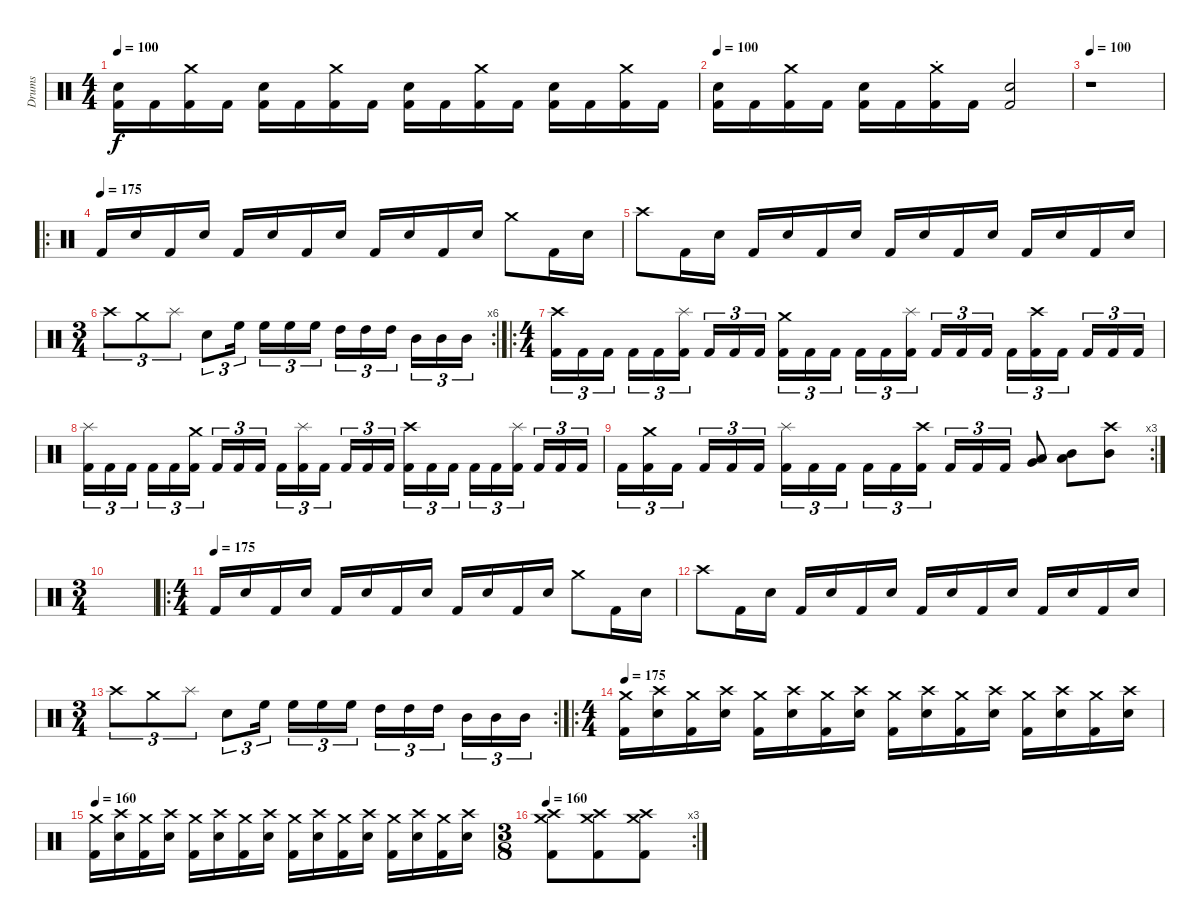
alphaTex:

\track ("Drums" "Drums") {instrument percussion}
\staff {score}
\articulation defaults
\ts (4 4)
\tempo 100
\clef neutral
\ks c
("Snare (hit) 2" "Kick (hit) 2").16{dy f} "Kick (hit) 2".16 ("Crash medium (hit)" "Kick (hit) 2").16 "Kick (hit) 2".16 ("Snare (hit) 2" "Kick (hit) 2").16 "Kick (hit) 2".16 ("Crash medium (hit)" "Kick (hit) 2").16 "Kick (hit) 2".16 ("Snare (hit) 2" "Kick (hit) 2").16 "Kick (hit) 2".16 ("Crash medium (hit)" "Kick (hit) 2").16 "Kick (hit) 2".16 ("Snare (hit) 2" "Kick (hit) 2").16 "Kick (hit) 2".16 ("Crash medium (hit)" "Kick (hit) 2").16 "Kick (hit) 2".16 |
\tempo 100
("Snare (hit) 2" "Kick (hit) 2").16 "Kick (hit) 2".16 ("Crash medium (hit)" "Kick (hit) 2").16 "Kick (hit) 2".16 ("Snare (hit) 2" "Kick (hit) 2").16 "Kick (hit) 2".16 ("Crash medium (hit)"{st} "Kick (hit) 2").16 "Kick (hit) 2".16 ("Snare (hit) 2" "Kick (hit) 2").2 |
\tempo 100
r.1 |
\ro
\tempo (175)
"Kick (hit) 2".16 "Snare (hit) 2".16 "Kick (hit) 2".16 "Snare (hit) 2".16 "Kick (hit) 2".16 "Snare (hit) 2".16 "Kick (hit) 2".16 "Snare (hit) 2".16 "Kick (hit) 2".16 "Snare (hit) 2".16 "Kick (hit) 2".16 "Snare (hit) 2".16 "Crash medium (hit)".8 "Kick (hit) 2".16 "Snare (hit) 2".16 |
"Crash high (hit)".8 "Kick (hit) 2".16 "Snare (hit) 2".16 "Kick (hit) 2".16 "Snare (hit) 2".16 "Kick (hit) 2".16 "Snare (hit) 2".16 "Kick (hit) 2".16 "Snare (hit) 2".16 "Kick (hit) 2".16 "Snare (hit) 2".16 "Kick (hit) 2".16 "Snare (hit) 2".16 "Kick (hit) 2".16 "Snare (hit) 2".16 |
\rc 6
\ts (3 4)
"Crash high (hit)".8{tu (3 2)} "Crash medium (hit)".8{tu (3 2)} "Splash (hit)".8{tu (3 2)} "Snare (hit) 2".8{tu (3 2)} "High Floor Tom (hit)".16{tu (3 2)} "High Floor Tom (hit)".16{tu (3 2)} "High Floor Tom (hit)".16{tu (3 2)} "High Floor Tom (hit)".16{tu (3 2)} "High Tom (hit)".16{tu (3 2)} "High Tom (hit)".16{tu (3 2)} "High Tom (hit)".16{tu (3 2)} "Mid Tom (hit)".16{tu (3 2)} "Mid Tom (hit)".16{tu (3 2)} "Mid Tom (hit)".16{tu (3 2)} |
\ro
\ts (4 4)
("Crash high (hit)" "Kick (hit) 2").16{tu (3 2)} "Kick (hit) 2".16{tu (3 2)} "Kick (hit) 2".16{tu (3 2)} "Kick (hit) 2".16{tu (3 2)} "Kick (hit) 2".16{tu (3 2)} ("Splash (hit)" "Kick (hit) 2").16{tu (3 2)} "Kick (hit) 2".16{tu (3 2)} "Kick (hit) 2".16{tu (3 2)} "Kick (hit) 2".16{tu (3 2)} ("Crash medium (hit)" "Kick (hit) 2").16{tu (3 2)} "Kick (hit) 2".16{tu (3 2)} "Kick (hit) 2".16{tu (3 2)} "Kick (hit) 2".16{tu (3 2)} "Kick (hit) 2".16{tu (3 2)} ("Splash (hit)" "Kick (hit) 2").16{tu (3 2)} "Kick (hit) 2".16{tu (3 2)} "Kick (hit) 2".16{tu (3 2)} "Kick (hit) 2".16{tu (3 2)} "Kick (hit) 2".16{tu (3 2)} ("Crash high (hit)" "Kick (hit) 2").16{tu (3 2)} "Kick (hit) 2".16{tu (3 2)} "Kick (hit) 2".16{tu (3 2)} "Kick (hit) 2".16{tu (3 2)} "Kick (hit) 2".16{tu (3 2)} |
("Splash (hit)" "Kick (hit) 2").16{tu (3 2)} "Kick (hit) 2".16{tu (3 2)} "Kick (hit) 2".16{tu (3 2)} "Kick (hit) 2".16{tu (3 2)} "Kick (hit) 2".16{tu (3 2)} ("Crash medium (hit)" "Kick (hit) 2").16{tu (3 2)} "Kick (hit) 2".16{tu (3 2)} "Kick (hit) 2".16{tu (3 2)} "Kick (hit) 2".16{tu (3 2)} "Kick (hit) 2".16{tu (3 2)} ("Splash (hit)" "Kick (hit) 2").16{tu (3 2)} "Kick (hit) 2".16{tu (3 2)} "Kick (hit) 2".16{tu (3 2)} "Kick (hit) 2".16{tu (3 2)} "Kick (hit) 2".16{tu (3 2)} ("Crash high (hit)" "Kick (hit) 2").16{tu (3 2)} "Kick (hit) 2".16{tu (3 2)} "Kick (hit) 2".16{tu (3 2)} "Kick (hit) 2".16{tu (3 2)} "Kick (hit) 2".16{tu (3 2)} ("Splash (hit)" "Kick (hit) 2").16{tu (3 2)} "Kick (hit) 2".16{tu (3 2)} "Kick (hit) 2".16{tu (3 2)} "Kick (hit) 2".16{tu (3 2)} |
\rc 3 "Kick (hit) 2".16{tu (3 2)}
("Crash medium (hit)" "Kick (hit) 2").16{tu (3 2)} "Kick (hit) 2".16{tu (3 2)} "Kick (hit) 2".16{tu (3 2)} "Kick (hit) 2".16{tu (3 2)} "Kick (hit) 2".16{tu (3 2)} ("Splash (hit)" "Kick (hit) 2").16{tu (3 2)} "Kick (hit) 2".16{tu (3 2)} "Kick (hit) 2".16{tu (3 2)} "Kick (hit) 2".16{tu (3 2)} "Kick (hit) 2".16{tu (3 2)} ("Crash high (hit)" "Kick (hit) 2").16{tu (3 2)} "Kick (hit) 2".16{tu (3 2)} "Kick (hit) 2".16{tu (3 2)} "Kick (hit) 2".16{tu (3 2)} ("Low Tom (hit)" "Very Low Tom (hit)").8 ("Mid Tom (hit)" "Low Tom (hit)").8 ("Crash high (hit)" "Mid Tom (hit)").8 |
\ts (3 4)
|
\ro
\ts (4 4)
\tempo (175)
"Kick (hit) 2".16 "Snare (hit) 2".16 "Kick (hit) 2".16 "Snare (hit) 2".16 "Kick (hit) 2".16 "Snare (hit) 2".16 "Kick (hit) 2".16 "Snare (hit) 2".16 "Kick (hit) 2".16 "Snare (hit) 2".16 "Kick (hit) 2".16 "Snare (hit) 2".16 "Crash medium (hit)".8 "Kick (hit) 2".16 "Snare (hit) 2".16 |
"Crash high (hit)".8 "Kick (hit) 2".16 "Snare (hit) 2".16 "Kick (hit) 2".16 "Snare (hit) 2".16 "Kick (hit) 2".16 "Snare (hit) 2".16 "Kick (hit) 2".16 "Snare (hit) 2".16 "Kick (hit) 2".16 "Snare (hit) 2".16 "Kick (hit) 2".16 "Snare (hit) 2".16 "Kick (hit) 2".16 "Snare (hit) 2".16 |
\rc 2
\ts (3 4)
"Crash high (hit)".8{tu (3 2)} "Crash medium (hit)".8{tu (3 2)} "Splash (hit)".8{tu (3 2)} "Snare (hit) 2".8{tu (3 2)} "High Floor Tom (hit)".16{tu (3 2)} "High Floor Tom (hit)".16{tu (3 2)} "High Floor Tom (hit)".16{tu (3 2)} "High Floor Tom (hit)".16{tu (3 2)} "High Tom (hit)".16{tu (3 2)} "High Tom (hit)".16{tu (3 2)} "High Tom (hit)".16{tu (3 2)} "Mid Tom (hit)".16{tu (3 2)} "Mid Tom (hit)".16{tu (3 2)} "Mid Tom (hit)".16{tu (3 2)} |
\ro
\ts (4 4)
\tempo 160
\tempo 175
("Crash medium (hit)" "Kick (hit) 2").16 ("Crash high (hit)" "Snare (hit) 2").16 ("Crash medium (hit)" "Kick (hit) 2").16 ("Crash high (hit)" "Snare (hit) 2").16 ("Crash medium (hit)" "Kick (hit) 2").16 ("Crash high (hit)" "Snare (hit) 2").16 ("Crash medium (hit)" "Kick (hit) 2").16 ("Crash high (hit)" "Snare (hit) 2").16 ("Crash medium (hit)" "Kick (hit) 2").16 ("Crash high (hit)" "Snare (hit) 2").16 ("Crash medium (hit)" "Kick (hit) 2").16 ("Crash high (hit)" "Snare (hit) 2").16 ("Crash medium (hit)" "Kick (hit) 2").16 ("Crash high (hit)" "Snare (hit) 2").16 ("Crash medium (hit)" "Kick (hit) 2").16 ("Crash high (hit)" "Snare (hit) 2").16 |
\tempo 160
("Crash medium (hit)" "Kick (hit) 2").16 ("Crash high (hit)" "Snare (hit) 2").16 ("Crash medium (hit)" "Kick (hit) 2").16 ("Crash high (hit)" "Snare (hit) 2").16 ("Crash medium (hit)" "Kick (hit) 2").16 ("Crash high (hit)" "Snare (hit) 2").16 ("Crash medium (hit)" "Kick (hit) 2").16 ("Crash high (hit)" "Snare (hit) 2").16 ("Crash medium (hit)" "Kick (hit) 2").16 ("Crash high (hit)" "Snare (hit) 2").16 ("Crash medium (hit)" "Kick (hit) 2").16 ("Crash high (hit)" "Snare (hit) 2").16 ("Crash medium (hit)" "Kick (hit) 2").16 ("Crash high (hit)" "Snare (hit) 2").16 ("Crash medium (hit)" "Kick (hit) 2").16 ("Crash high (hit)" "Snare (hit) 2").16 |
\rc 3
\ts (3 8)
\tempo 160
("Crash high (hit)" "Crash medium (hit)" "Kick (hit) 2").8 ("Crash high (hit)" "Crash medium (hit)" "Kick (hit) 2").8 ("Crash high (hit)" "Crash medium (hit)" "Kick (hit) 2").8
